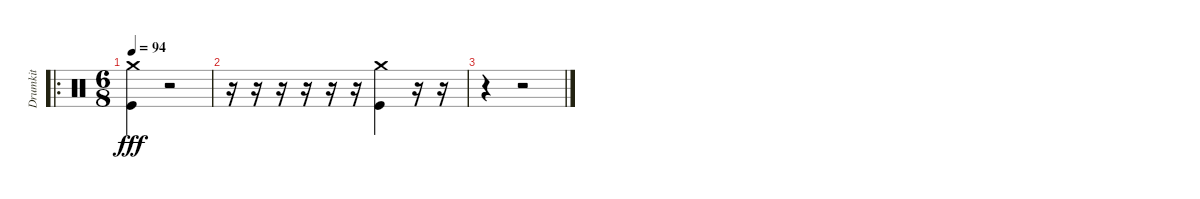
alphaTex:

\track ("Drumkit" "Drumkit") {instrument percussion}
\staff {score}
\articulation defaults
\ro
\ts (6 8)
\tempo 94
\clef neutral
\ks c
("Kick (hit)" "Crash medium (hit)").4{dy fff} r.2 |
r.16 r.16 r.16 r.16 r.16 r.16 ("Kick (hit)" "Crash medium (hit)").4 r.16 r.16 |
r.4 r.2
